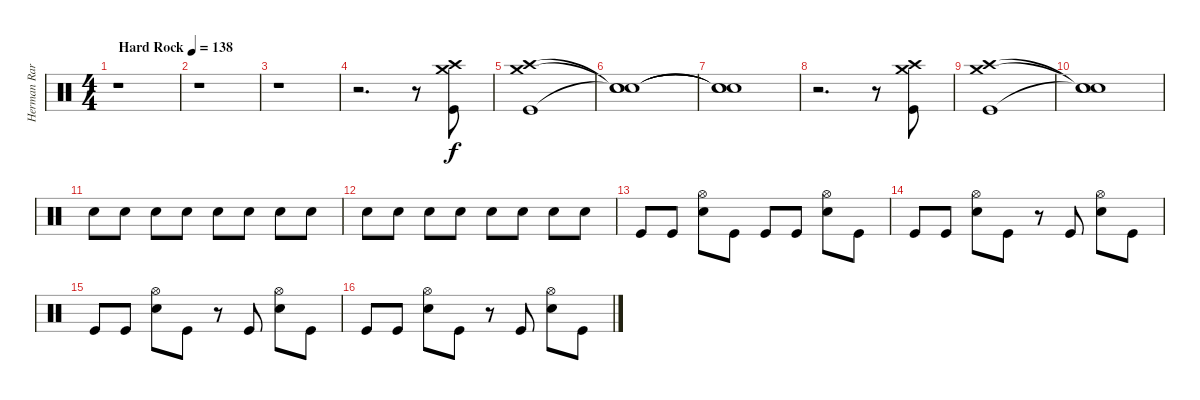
\track ("Herman Rarebell Drums" "Herman Rar") {instrument percussion}
\staff {score}
\articulation defaults
\ts (4 4)
\tempo (138 "Hard Rock")
\clef neutral
\ks c
r.1{dy f} |
r.1 |
r.1 |
r.2{d} r.8 ("Crash high (hit)" "Crash medium (hit)" "Kick (hit)").8{volume 13} |
("Crash high (hit)" "Crash medium (hit)" "Kick (hit)").1 |
("Snare (hit)"{t} "Snare (hit)"{t} "Snare (hit)"{t}).1 |
("Snare (hit)"{t} "Snare (hit)"{t} "Snare (hit)"{t}).1 |
r.2{d} r.8 ("Crash high (hit)" "Crash medium (hit)" "Kick (hit)").8 |
("Crash high (hit)" "Crash medium (hit)" "Kick (hit)").1 |
("Snare (hit)"{t} "Snare (hit)"{t} "Snare (hit)"{t}).1 |
"Snare (hit) 2".8{volume 8} "Snare (hit) 2".8{volume 15} "Snare (hit) 2".8 "Snare (hit) 2".8 "Snare (hit) 2".8 "Snare (hit) 2".8 "Snare (hit) 2".8 "Snare (hit) 2".8 |
"Snare (hit) 2".8 "Snare (hit) 2".8 "Snare (hit) 2".8 "Snare (hit) 2".8 "Snare (hit) 2".8 "Snare (hit) 2".8 "Snare (hit) 2".8 "Snare (hit) 2".8 |
"Kick (hit)".8 "Kick (hit)".8 ("Hi-Hat (open)" "Snare (hit) 2").8 "Kick (hit)".8 "Kick (hit)".8 "Kick (hit)".8 ("Hi-Hat (open)" "Snare (hit) 2").8 "Kick (hit)".8 |
"Kick (hit)".8 "Kick (hit)".8 ("Hi-Hat (open)" "Snare (hit) 2").8 "Kick (hit)".8 r.8 "Kick (hit)".8 ("Hi-Hat (open)" "Snare (hit) 2").8 "Kick (hit)".8 |
"Kick (hit)".8 "Kick (hit)".8 ("Hi-Hat (open)" "Snare (hit) 2").8 "Kick (hit)".8 r.8 "Kick (hit)".8 ("Hi-Hat (open)" "Snare (hit) 2").8 "Kick (hit)".8 |
"Kick (hit)".8 "Kick (hit)".8 ("Hi-Hat (open)" "Snare (hit) 2").8 "Kick (hit)".8 r.8 "Kick (hit)".8 ("Hi-Hat (open)" "Snare (hit) 2").8 "Kick (hit)".8
